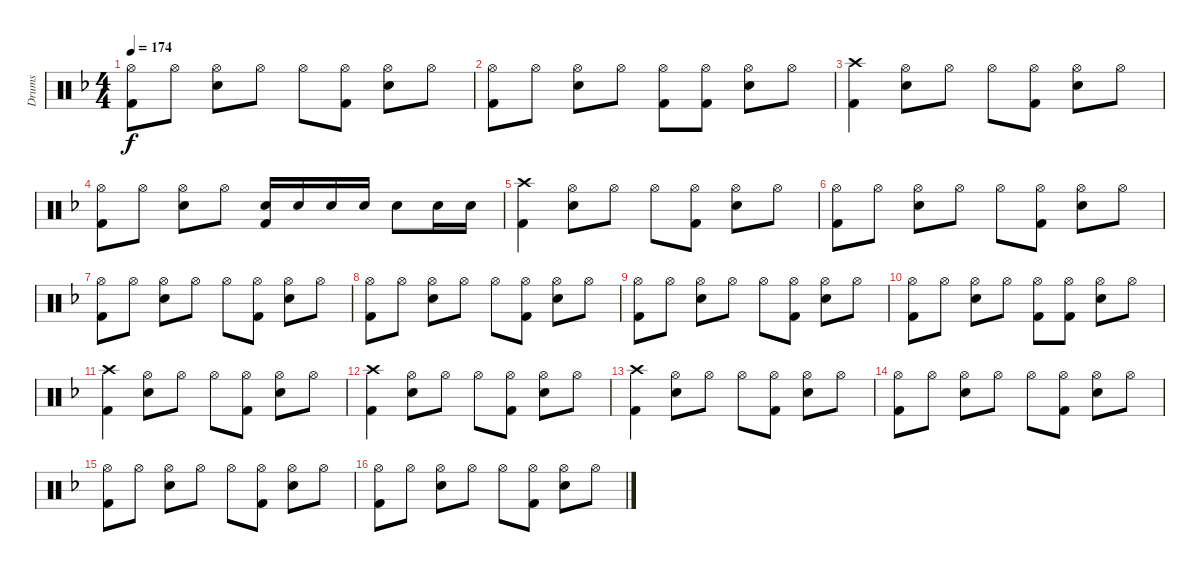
\track ("Drums" "Drums") {instrument percussion}
\staff {score}
\articulation defaults
\ts (4 4)
\tempo 174
\clef neutral
\ks dminor
("Kick (hit) 2" "Hi-Hat (open)").8{dy f} "Hi-Hat (open)".8 ("Snare (hit) 2" "Hi-Hat (open)").8 "Hi-Hat (open)".8 "Hi-Hat (open)".8 ("Kick (hit) 2" "Hi-Hat (open)").8 ("Snare (hit) 2" "Hi-Hat (open)").8 "Hi-Hat (open)".8 |
("Kick (hit) 2" "Hi-Hat (open)").8 "Hi-Hat (open)".8 ("Snare (hit) 2" "Hi-Hat (open)").8 "Hi-Hat (open)".8 ("Kick (hit) 2" "Hi-Hat (open)").8 ("Kick (hit) 2" "Hi-Hat (open)").8 ("Snare (hit) 2" "Hi-Hat (open)").8 "Hi-Hat (open)".8 |
("Kick (hit) 2" "Crash high (hit)").4 ("Snare (hit) 2" "Hi-Hat (open)").8 "Hi-Hat (open)".8 "Hi-Hat (open)".8 ("Kick (hit) 2" "Hi-Hat (open)").8 ("Snare (hit) 2" "Hi-Hat (open)").8 "Hi-Hat (open)".8 |
("Kick (hit) 2" "Hi-Hat (open)").8 "Hi-Hat (open)".8 ("Snare (hit) 2" "Hi-Hat (open)").8 "Hi-Hat (open)".8 ("Kick (hit) 2" "Snare (hit) 2").16 "Snare (hit) 2".16 "Snare (hit) 2".16 "Snare (hit) 2".16 "Snare (hit) 2".8 "Snare (hit) 2".16 "Snare (hit) 2".16 |
("Kick (hit) 2" "Crash high (hit)").4 ("Snare (hit) 2" "Hi-Hat (open)").8 "Hi-Hat (open)".8 "Hi-Hat (open)".8 ("Kick (hit) 2" "Hi-Hat (open)").8 ("Snare (hit) 2" "Hi-Hat (open)").8 "Hi-Hat (open)".8 |
("Kick (hit) 2" "Hi-Hat (open)").8 "Hi-Hat (open)".8 ("Snare (hit) 2" "Hi-Hat (open)").8 "Hi-Hat (open)".8 "Hi-Hat (open)".8 ("Kick (hit) 2" "Hi-Hat (open)").8 ("Snare (hit) 2" "Hi-Hat (open)").8 "Hi-Hat (open)".8 |
("Kick (hit) 2" "Hi-Hat (open)").8 "Hi-Hat (open)".8 ("Snare (hit) 2" "Hi-Hat (open)").8 "Hi-Hat (open)".8 "Hi-Hat (open)".8 ("Kick (hit) 2" "Hi-Hat (open)").8 ("Snare (hit) 2" "Hi-Hat (open)").8 "Hi-Hat (open)".8 |
("Kick (hit) 2" "Hi-Hat (open)").8 "Hi-Hat (open)".8 ("Snare (hit) 2" "Hi-Hat (open)").8 "Hi-Hat (open)".8 "Hi-Hat (open)".8 ("Kick (hit) 2" "Hi-Hat (open)").8 ("Snare (hit) 2" "Hi-Hat (open)").8 "Hi-Hat (open)".8 |
("Kick (hit) 2" "Hi-Hat (open)").8 "Hi-Hat (open)".8 ("Snare (hit) 2" "Hi-Hat (open)").8 "Hi-Hat (open)".8 "Hi-Hat (open)".8 ("Kick (hit) 2" "Hi-Hat (open)").8 ("Snare (hit) 2" "Hi-Hat (open)").8 "Hi-Hat (open)".8 |
("Kick (hit) 2" "Hi-Hat (open)").8 "Hi-Hat (open)".8 ("Snare (hit) 2" "Hi-Hat (open)").8 "Hi-Hat (open)".8 ("Kick (hit) 2" "Hi-Hat (open)").8 ("Kick (hit) 2" "Hi-Hat (open)").8 ("Snare (hit) 2" "Hi-Hat (open)").8 "Hi-Hat (open)".8 |
("Kick (hit) 2" "Crash high (hit)").4 ("Snare (hit) 2" "Hi-Hat (open)").8 "Hi-Hat (open)".8 "Hi-Hat (open)".8 ("Kick (hit) 2" "Hi-Hat (open)").8 ("Snare (hit) 2" "Hi-Hat (open)").8 "Hi-Hat (open)".8 |
("Kick (hit) 2" "Crash high (hit)").4 ("Snare (hit) 2" "Hi-Hat (open)").8 "Hi-Hat (open)".8 "Hi-Hat (open)".8 ("Kick (hit) 2" "Hi-Hat (open)").8 ("Snare (hit) 2" "Hi-Hat (open)").8 "Hi-Hat (open)".8 |
("Kick (hit) 2" "Crash high (hit)").4 ("Snare (hit) 2" "Hi-Hat (open)").8 "Hi-Hat (open)".8 "Hi-Hat (open)".8 ("Kick (hit) 2" "Hi-Hat (open)").8 ("Snare (hit) 2" "Hi-Hat (open)").8 "Hi-Hat (open)".8 |
("Kick (hit) 2" "Hi-Hat (open)").8 "Hi-Hat (open)".8 ("Snare (hit) 2" "Hi-Hat (open)").8 "Hi-Hat (open)".8 "Hi-Hat (open)".8 ("Kick (hit) 2" "Hi-Hat (open)").8 ("Snare (hit) 2" "Hi-Hat (open)").8 "Hi-Hat (open)".8 |
("Kick (hit) 2" "Hi-Hat (open)").8 "Hi-Hat (open)".8 ("Snare (hit) 2" "Hi-Hat (open)").8 "Hi-Hat (open)".8 "Hi-Hat (open)".8 ("Kick (hit) 2" "Hi-Hat (open)").8 ("Snare (hit) 2" "Hi-Hat (open)").8 "Hi-Hat (open)".8 |
("Kick (hit) 2" "Hi-Hat (open)").8 "Hi-Hat (open)".8 ("Snare (hit) 2" "Hi-Hat (open)").8 "Hi-Hat (open)".8 "Hi-Hat (open)".8 ("Kick (hit) 2" "Hi-Hat (open)").8 ("Snare (hit) 2" "Hi-Hat (open)").8 "Hi-Hat (open)".8
